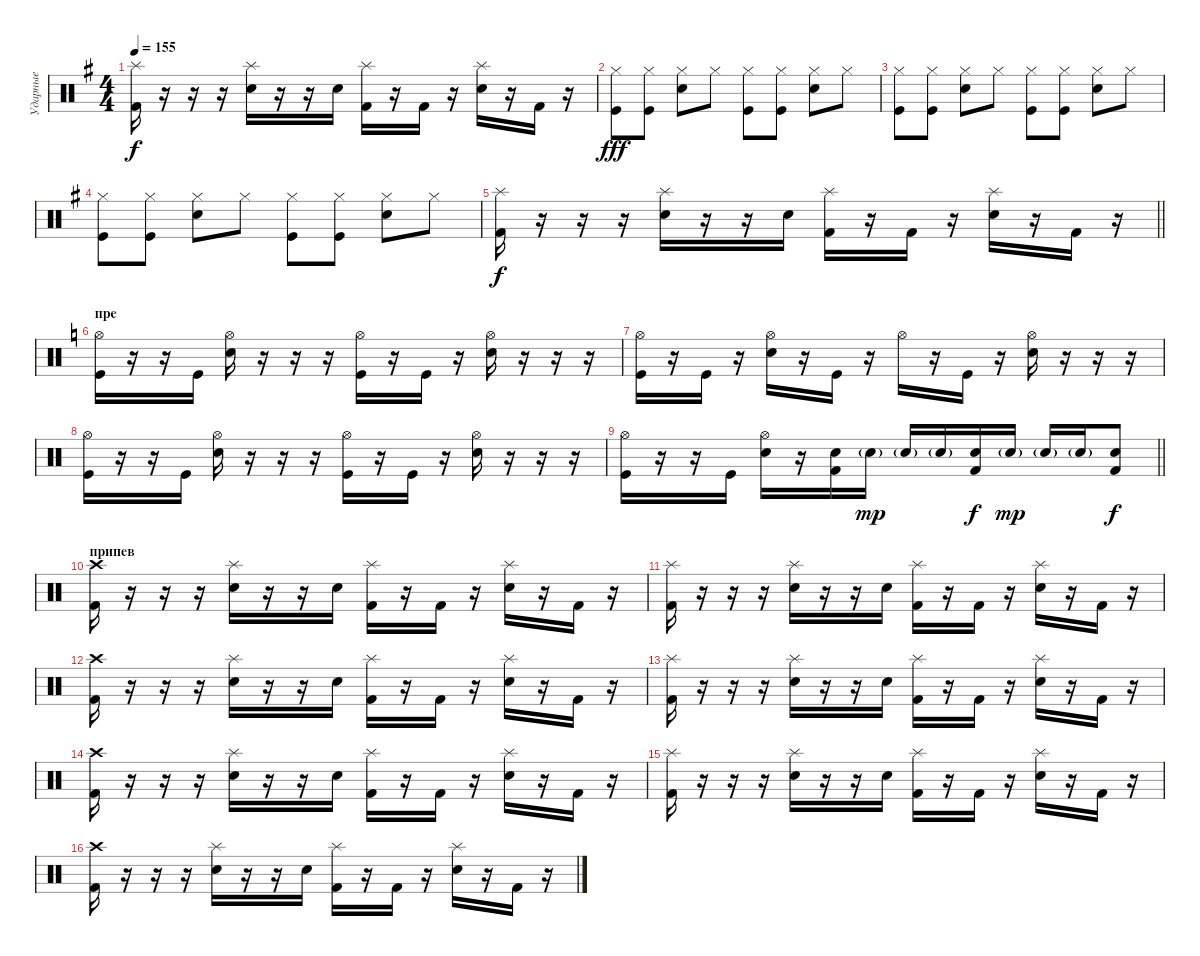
\track ("Ударные" "Ударные") {instrument percussion}
\staff {score}
\articulation defaults
\ts (4 4)
\tempo 155
\clef neutral
\ks g
("Splash (hit)" "Kick (hit) 2").16{dy f} r.16 r.16 r.16 ("Splash (hit)" "Electric Snare (hit)").16 r.16 r.16 "Electric Snare (hit)".16 ("Splash (hit)" "Kick (hit) 2").16 r.16 "Kick (hit) 2".16 r.16 ("Splash (hit)" "Electric Snare (hit)").16 r.16 "Kick (hit) 2".16 r.16 |
("Hi-Hat (closed)" "Kick (hit)").8{dy fff} ("Hi-Hat (closed)" "Kick (hit)").8 ("Hi-Hat (closed)" "Snare (hit) 2").8 "Hi-Hat (closed)".8 ("Hi-Hat (closed)" "Kick (hit)").8 ("Hi-Hat (closed)" "Kick (hit)").8 ("Hi-Hat (closed)" "Snare (hit) 2").8 "Hi-Hat (closed)".8 |
("Hi-Hat (closed)" "Kick (hit)").8 ("Hi-Hat (closed)" "Kick (hit)").8 ("Hi-Hat (closed)" "Snare (hit) 2").8 "Hi-Hat (closed)".8 ("Hi-Hat (closed)" "Kick (hit)").8 ("Hi-Hat (closed)" "Kick (hit)").8 ("Hi-Hat (closed)" "Snare (hit) 2").8 "Hi-Hat (closed)".8 |
("Hi-Hat (closed)" "Kick (hit)").8 ("Hi-Hat (closed)" "Kick (hit)").8 ("Hi-Hat (closed)" "Snare (hit) 2").8 "Hi-Hat (closed)".8 ("Hi-Hat (closed)" "Kick (hit)").8 ("Hi-Hat (closed)" "Kick (hit)").8 ("Hi-Hat (closed)" "Snare (hit) 2").8 "Hi-Hat (closed)".8 |
\barLineRight lightlight
("Splash (hit)" "Kick (hit) 2").16{dy f} r.16 r.16 r.16 ("Splash (hit)" "Electric Snare (hit)").16 r.16 r.16 "Electric Snare (hit)".16 ("Splash (hit)" "Kick (hit) 2").16 r.16 "Kick (hit) 2".16 r.16 ("Splash (hit)" "Electric Snare (hit)").16 r.16 "Kick (hit) 2".16 r.16 |
\section ("" "пре")
\ks c
("Hi-Hat (open)" "Kick (hit)").16 r.16 r.16 "Kick (hit)".16 ("Hi-Hat (open)" "Electric Snare (hit)").16 r.16 r.16 r.16 ("Hi-Hat (open)" "Kick (hit)").16 r.16 "Kick (hit)".16 r.16 ("Hi-Hat (open)" "Electric Snare (hit)").16 r.16 r.16 r.16 |
("Hi-Hat (open)" "Kick (hit)").16 r.16 "Kick (hit)".16 r.16 ("Hi-Hat (open)" "Electric Snare (hit)").16 r.16 "Kick (hit)".16 r.16 "Hi-Hat (open)".16 r.16 "Kick (hit)".16 r.16 ("Hi-Hat (open)" "Electric Snare (hit)").16 r.16 r.16 r.16 |
("Hi-Hat (open)" "Kick (hit)").16 r.16 r.16 "Kick (hit)".16 ("Hi-Hat (open)" "Electric Snare (hit)").16 r.16 r.16 r.16 ("Hi-Hat (open)" "Kick (hit)").16 r.16 "Kick (hit)".16 r.16 ("Hi-Hat (open)" "Electric Snare (hit)").16 r.16 r.16 r.16 |
\barLineRight lightlight
("Hi-Hat (open)" "Kick (hit)").16 r.16 r.16 "Kick (hit)".16 ("Hi-Hat (open)" "Electric Snare (hit)").16 r.16 ("Electric Snare (hit)" "Kick (hit) 2").16 "Electric Snare (hit)"{g}.16{dy mp} "Electric Snare (hit)"{g}.16 "Electric Snare (hit)"{g}.16 ("Electric Snare (hit)" "Kick (hit) 2").16{dy f} "Electric Snare (hit)"{g}.16{dy mp} "Electric Snare (hit)"{g}.16 "Electric Snare (hit)"{g}.16 ("Electric Snare (hit)" "Kick (hit) 2").8{dy f} |
\section ("" "припев")
("Crash high (hit)" "Kick (hit) 2").16 r.16 r.16 r.16 ("Splash (hit)" "Electric Snare (hit)").16 r.16 r.16 "Electric Snare (hit)".16 ("Splash (hit)" "Kick (hit) 2").16 r.16 "Kick (hit) 2".16 r.16 ("Splash (hit)" "Electric Snare (hit)").16 r.16 "Kick (hit) 2".16 r.16 |
("Splash (hit)" "Kick (hit) 2").16 r.16 r.16 r.16 ("Splash (hit)" "Electric Snare (hit)").16 r.16 r.16 "Electric Snare (hit)".16 ("Splash (hit)" "Kick (hit) 2").16 r.16 "Kick (hit) 2".16 r.16 ("Splash (hit)" "Electric Snare (hit)").16 r.16 "Kick (hit) 2".16 r.16 |
("Crash high (hit)" "Kick (hit) 2").16 r.16 r.16 r.16 ("Splash (hit)" "Electric Snare (hit)").16 r.16 r.16 "Electric Snare (hit)".16 ("Splash (hit)" "Kick (hit) 2").16 r.16 "Kick (hit) 2".16 r.16 ("Splash (hit)" "Electric Snare (hit)").16 r.16 "Kick (hit) 2".16 r.16 |
("Splash (hit)" "Kick (hit) 2").16 r.16 r.16 r.16 ("Splash (hit)" "Electric Snare (hit)").16 r.16 r.16 "Electric Snare (hit)".16 ("Splash (hit)" "Kick (hit) 2").16 r.16 "Kick (hit) 2".16 r.16 ("Splash (hit)" "Electric Snare (hit)").16 r.16 "Kick (hit) 2".16 r.16 |
("Crash high (hit)" "Kick (hit) 2").16 r.16 r.16 r.16 ("Splash (hit)" "Electric Snare (hit)").16 r.16 r.16 "Electric Snare (hit)".16 ("Splash (hit)" "Kick (hit) 2").16 r.16 "Kick (hit) 2".16 r.16 ("Splash (hit)" "Electric Snare (hit)").16 r.16 "Kick (hit) 2".16 r.16 |
("Splash (hit)" "Kick (hit) 2").16 r.16 r.16 r.16 ("Splash (hit)" "Electric Snare (hit)").16 r.16 r.16 "Electric Snare (hit)".16 ("Splash (hit)" "Kick (hit) 2").16 r.16 "Kick (hit) 2".16 r.16 ("Splash (hit)" "Electric Snare (hit)").16 r.16 "Kick (hit) 2".16 r.16 |
("Crash high (hit)" "Kick (hit) 2").16 r.16 r.16 r.16 ("Splash (hit)" "Electric Snare (hit)").16 r.16 r.16 "Electric Snare (hit)".16 ("Splash (hit)" "Kick (hit) 2").16 r.16 "Kick (hit) 2".16 r.16 ("Splash (hit)" "Electric Snare (hit)").16 r.16 "Kick (hit) 2".16 r.16
